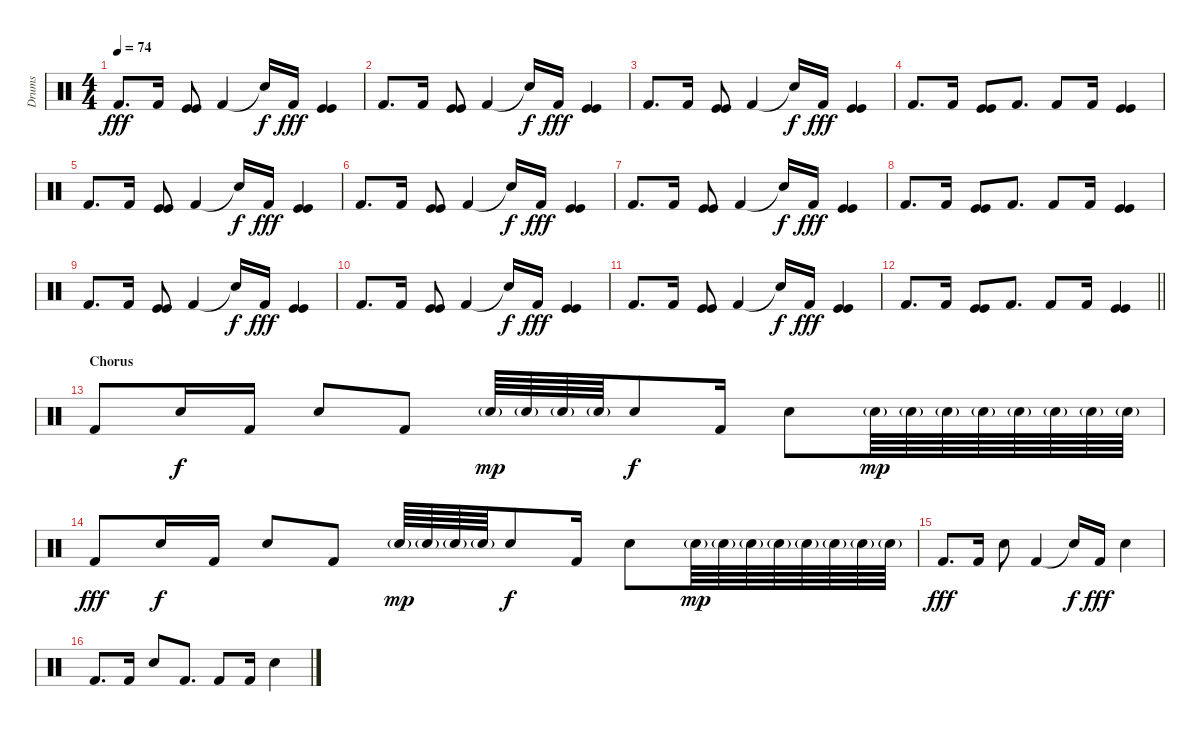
\track ("Drums" "Drums") {instrument percussion}
\staff {score}
\articulation defaults
\ts (4 4)
\tempo 74
\clef neutral
\ks c "Kick (hit) 2".8{d dy fff} "Kick (hit) 2".16
("Kick (hit)" "Kick (hit)").8 "Kick (hit) 2".4 "Snare (hit)"{t}.16{dy f} "Kick (hit) 2".16{dy fff} ("Kick (hit)" "Kick (hit)").4 |
"Kick (hit) 2".8{d} "Kick (hit) 2".16 ("Kick (hit)" "Kick (hit)").8 "Kick (hit) 2".4 "Snare (hit)"{t}.16{dy f} "Kick (hit) 2".16{dy fff} ("Kick (hit)" "Kick (hit)").4 |
"Kick (hit) 2".8{d} "Kick (hit) 2".16 ("Kick (hit)" "Kick (hit)").8 "Kick (hit) 2".4 "Snare (hit)"{t}.16{dy f} "Kick (hit) 2".16{dy fff} ("Kick (hit)" "Kick (hit)").4 |
"Kick (hit) 2".8{d} "Kick (hit) 2".16 ("Kick (hit)" "Kick (hit)").8 "Kick (hit) 2".8{d} "Kick (hit) 2".8 "Kick (hit) 2".16 ("Kick (hit)" "Kick (hit)").4 |
"Kick (hit) 2".8{d} "Kick (hit) 2".16 ("Kick (hit)" "Kick (hit)").8 "Kick (hit) 2".4 "Snare (hit)"{t}.16{dy f} "Kick (hit) 2".16{dy fff} ("Kick (hit)" "Kick (hit)").4 |
"Kick (hit) 2".8{d} "Kick (hit) 2".16 ("Kick (hit)" "Kick (hit)").8 "Kick (hit) 2".4 "Snare (hit)"{t}.16{dy f} "Kick (hit) 2".16{dy fff} ("Kick (hit)" "Kick (hit)").4 |
"Kick (hit) 2".8{d} "Kick (hit) 2".16 ("Kick (hit)" "Kick (hit)").8 "Kick (hit) 2".4 "Snare (hit)"{t}.16{dy f} "Kick (hit) 2".16{dy fff} ("Kick (hit)" "Kick (hit)").4 |
"Kick (hit) 2".8{d} "Kick (hit) 2".16 ("Kick (hit)" "Kick (hit)").8 "Kick (hit) 2".8{d} "Kick (hit) 2".8 "Kick (hit) 2".16 ("Kick (hit)" "Kick (hit)").4 |
"Kick (hit) 2".8{d} "Kick (hit) 2".16 ("Kick (hit)" "Kick (hit)").8 "Kick (hit) 2".4 "Snare (hit)"{t}.16{dy f} "Kick (hit) 2".16{dy fff} ("Kick (hit)" "Kick (hit)").4 |
"Kick (hit) 2".8{d} "Kick (hit) 2".16 ("Kick (hit)" "Kick (hit)").8 "Kick (hit) 2".4 "Snare (hit)"{t}.16{dy f} "Kick (hit) 2".16{dy fff} ("Kick (hit)" "Kick (hit)").4 |
"Kick (hit) 2".8{d} "Kick (hit) 2".16 ("Kick (hit)" "Kick (hit)").8 "Kick (hit) 2".4 "Snare (hit)"{t}.16{dy f} "Kick (hit) 2".16{dy fff} ("Kick (hit)" "Kick (hit)").4 |
\barLineRight lightlight "Kick (hit) 2".8{d} "Kick (hit) 2".16
("Kick (hit)" "Kick (hit)").8 "Kick (hit) 2".8{d} "Kick (hit) 2".8 "Kick (hit) 2".16 ("Kick (hit)" "Kick (hit)").4 |
\section ("" "Chorus")
"Kick (hit) 2".8 "Snare (hit) 2".16{dy f} "Kick (hit) 2".16 "Snare (hit) 2".8 "Kick (hit) 2".8 "Electric Snare (hit)"{g}.64{dy mp} "Electric Snare (hit)"{g}.64 "Electric Snare (hit)"{g}.64 "Electric Snare (hit)"{g}.64 "Snare (hit) 2".8{dy f} "Kick (hit) 2".16 "Snare (hit) 2".8 "Electric Snare (hit)"{g}.64{dy mp} "Electric Snare (hit)"{g}.64 "Electric Snare (hit)"{g}.64 "Electric Snare (hit)"{g}.64 "Electric Snare (hit)"{g}.64 "Electric Snare (hit)"{g}.64 "Electric Snare (hit)"{g}.64 "Electric Snare (hit)"{g}.64 |
"Kick (hit) 2".8{dy fff} "Snare (hit) 2".16{dy f} "Kick (hit) 2".16 "Snare (hit) 2".8 "Kick (hit) 2".8 "Electric Snare (hit)"{g}.64{dy mp} "Electric Snare (hit)"{g}.64 "Electric Snare (hit)"{g}.64 "Electric Snare (hit)"{g}.64 "Snare (hit) 2".8{dy f} "Kick (hit) 2".16 "Snare (hit) 2".8 "Electric Snare (hit)"{g}.64{dy mp} "Electric Snare (hit)"{g}.64 "Electric Snare (hit)"{g}.64 "Electric Snare (hit)"{g}.64 "Electric Snare (hit)"{g}.64 "Electric Snare (hit)"{g}.64 "Electric Snare (hit)"{g}.64 "Electric Snare (hit)"{g}.64 |
"Kick (hit) 2".8{d dy fff} "Kick (hit) 2".16 "Snare (hit) 2".8 "Kick (hit) 2".4 "Snare (hit)"{t}.16{dy f} "Kick (hit) 2".16{dy fff} "Snare (hit) 2".4 |
"Kick (hit) 2".8{d} "Kick (hit) 2".16 "Snare (hit) 2".8 "Kick (hit) 2".8{d} "Kick (hit) 2".8 "Kick (hit) 2".16 "Snare (hit) 2".4
